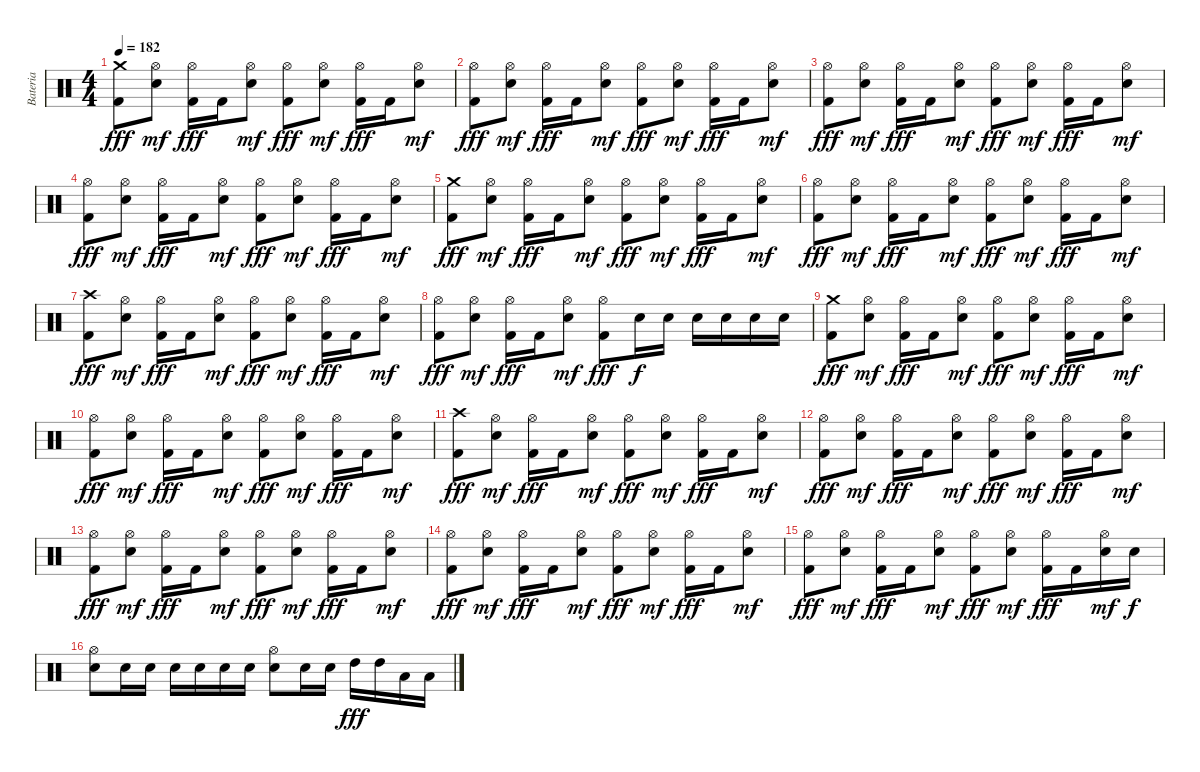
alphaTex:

\track ("Bateria" "Bateria") {instrument percussion}
\staff {score}
\articulation defaults
\ts (4 4)
\tempo 182
\clef neutral
\ks c
("Crash medium (hit)" "Kick (hit) 2").8{dy fff} ("Hi-Hat (open)" "Electric Snare (hit)").8{dy mf} ("Hi-Hat (open)" "Kick (hit) 2").16{dy fff} "Kick (hit) 2".16 ("Hi-Hat (open)" "Electric Snare (hit)").8{dy mf} ("Hi-Hat (open)" "Kick (hit) 2").8{dy fff} ("Hi-Hat (open)" "Electric Snare (hit)").8{dy mf} ("Hi-Hat (open)" "Kick (hit) 2").16{dy fff} "Kick (hit) 2".16 ("Hi-Hat (open)" "Electric Snare (hit)").8{dy mf} |
("Hi-Hat (open)" "Kick (hit) 2").8{dy fff} ("Hi-Hat (open)" "Electric Snare (hit)").8{dy mf} ("Hi-Hat (open)" "Kick (hit) 2").16{dy fff} "Kick (hit) 2".16 ("Hi-Hat (open)" "Electric Snare (hit)").8{dy mf} ("Hi-Hat (open)" "Kick (hit) 2").8{dy fff} ("Hi-Hat (open)" "Electric Snare (hit)").8{dy mf} ("Hi-Hat (open)" "Kick (hit) 2").16{dy fff} "Kick (hit) 2".16 ("Hi-Hat (open)" "Electric Snare (hit)").8{dy mf} |
("Hi-Hat (open)" "Kick (hit) 2").8{dy fff} ("Hi-Hat (open)" "Electric Snare (hit)").8{dy mf} ("Hi-Hat (open)" "Kick (hit) 2").16{dy fff} "Kick (hit) 2".16 ("Hi-Hat (open)" "Electric Snare (hit)").8{dy mf} ("Hi-Hat (open)" "Kick (hit) 2").8{dy fff} ("Hi-Hat (open)" "Electric Snare (hit)").8{dy mf} ("Hi-Hat (open)" "Kick (hit) 2").16{dy fff} "Kick (hit) 2".16 ("Hi-Hat (open)" "Electric Snare (hit)").8{dy mf} |
("Hi-Hat (open)" "Kick (hit) 2").8{dy fff} ("Hi-Hat (open)" "Electric Snare (hit)").8{dy mf} ("Hi-Hat (open)" "Kick (hit) 2").16{dy fff} "Kick (hit) 2".16 ("Hi-Hat (open)" "Electric Snare (hit)").8{dy mf} ("Hi-Hat (open)" "Kick (hit) 2").8{dy fff} ("Hi-Hat (open)" "Electric Snare (hit)").8{dy mf} ("Hi-Hat (open)" "Kick (hit) 2").16{dy fff} "Kick (hit) 2".16 ("Hi-Hat (open)" "Electric Snare (hit)").8{dy mf} |
("Crash medium (hit)" "Kick (hit) 2").8{dy fff} ("Hi-Hat (open)" "Electric Snare (hit)").8{dy mf} ("Hi-Hat (open)" "Kick (hit) 2").16{dy fff} "Kick (hit) 2".16 ("Hi-Hat (open)" "Electric Snare (hit)").8{dy mf} ("Hi-Hat (open)" "Kick (hit) 2").8{dy fff} ("Hi-Hat (open)" "Electric Snare (hit)").8{dy mf} ("Hi-Hat (open)" "Kick (hit) 2").16{dy fff} "Kick (hit) 2".16 ("Hi-Hat (open)" "Electric Snare (hit)").8{dy mf} |
("Hi-Hat (open)" "Kick (hit) 2").8{dy fff} ("Hi-Hat (open)" "Electric Snare (hit)").8{dy mf} ("Hi-Hat (open)" "Kick (hit) 2").16{dy fff} "Kick (hit) 2".16 ("Hi-Hat (open)" "Electric Snare (hit)").8{dy mf} ("Hi-Hat (open)" "Kick (hit) 2").8{dy fff} ("Hi-Hat (open)" "Electric Snare (hit)").8{dy mf} ("Hi-Hat (open)" "Kick (hit) 2").16{dy fff} "Kick (hit) 2".16 ("Hi-Hat (open)" "Electric Snare (hit)").8{dy mf} |
("Crash high (hit)" "Kick (hit) 2").8{dy fff} ("Hi-Hat (open)" "Electric Snare (hit)").8{dy mf} ("Hi-Hat (open)" "Kick (hit) 2").16{dy fff} "Kick (hit) 2".16 ("Hi-Hat (open)" "Electric Snare (hit)").8{dy mf} ("Hi-Hat (open)" "Kick (hit) 2").8{dy fff} ("Hi-Hat (open)" "Electric Snare (hit)").8{dy mf} ("Hi-Hat (open)" "Kick (hit) 2").16{dy fff} "Kick (hit) 2".16 ("Hi-Hat (open)" "Electric Snare (hit)").8{dy mf} |
("Hi-Hat (open)" "Kick (hit) 2").8{dy fff} ("Hi-Hat (open)" "Electric Snare (hit)").8{dy mf} ("Hi-Hat (open)" "Kick (hit) 2").16{dy fff} "Kick (hit) 2".16 ("Hi-Hat (open)" "Electric Snare (hit)").8{dy mf} ("Hi-Hat (open)" "Kick (hit) 2").8{dy fff} "Electric Snare (hit)".16{dy f} "Electric Snare (hit)".16 "Electric Snare (hit)".16 "Electric Snare (hit)".16 "Electric Snare (hit)".16 "Electric Snare (hit)".16 |
("Crash medium (hit)" "Kick (hit) 2").8{dy fff} ("Hi-Hat (open)" "Electric Snare (hit)").8{dy mf} ("Hi-Hat (open)" "Kick (hit) 2").16{dy fff} "Kick (hit) 2".16 ("Hi-Hat (open)" "Electric Snare (hit)").8{dy mf} ("Hi-Hat (open)" "Kick (hit) 2").8{dy fff} ("Hi-Hat (open)" "Electric Snare (hit)").8{dy mf} ("Hi-Hat (open)" "Kick (hit) 2").16{dy fff} "Kick (hit) 2".16 ("Hi-Hat (open)" "Electric Snare (hit)").8{dy mf} |
("Hi-Hat (open)" "Kick (hit) 2").8{dy fff} ("Hi-Hat (open)" "Electric Snare (hit)").8{dy mf} ("Hi-Hat (open)" "Kick (hit) 2").16{dy fff} "Kick (hit) 2".16 ("Hi-Hat (open)" "Electric Snare (hit)").8{dy mf} ("Hi-Hat (open)" "Kick (hit) 2").8{dy fff} ("Hi-Hat (open)" "Electric Snare (hit)").8{dy mf} ("Hi-Hat (open)" "Kick (hit) 2").16{dy fff} "Kick (hit) 2".16 ("Hi-Hat (open)" "Electric Snare (hit)").8{dy mf} |
("Crash high (hit)" "Kick (hit) 2").8{dy fff} ("Hi-Hat (open)" "Electric Snare (hit)").8{dy mf} ("Hi-Hat (open)" "Kick (hit) 2").16{dy fff} "Kick (hit) 2".16 ("Hi-Hat (open)" "Electric Snare (hit)").8{dy mf} ("Hi-Hat (open)" "Kick (hit) 2").8{dy fff} ("Hi-Hat (open)" "Electric Snare (hit)").8{dy mf} ("Hi-Hat (open)" "Kick (hit) 2").16{dy fff} "Kick (hit) 2".16 ("Hi-Hat (open)" "Electric Snare (hit)").8{dy mf} |
("Hi-Hat (open)" "Kick (hit) 2").8{dy fff} ("Hi-Hat (open)" "Electric Snare (hit)").8{dy mf} ("Hi-Hat (open)" "Kick (hit) 2").16{dy fff} "Kick (hit) 2".16 ("Hi-Hat (open)" "Electric Snare (hit)").8{dy mf} ("Hi-Hat (open)" "Kick (hit) 2").8{dy fff} ("Hi-Hat (open)" "Electric Snare (hit)").8{dy mf} ("Hi-Hat (open)" "Kick (hit) 2").16{dy fff} "Kick (hit) 2".16 ("Hi-Hat (open)" "Electric Snare (hit)").8{dy mf} |
("Hi-Hat (open)" "Kick (hit) 2").8{dy fff} ("Hi-Hat (open)" "Electric Snare (hit)").8{dy mf} ("Hi-Hat (open)" "Kick (hit) 2").16{dy fff} "Kick (hit) 2".16 ("Hi-Hat (open)" "Electric Snare (hit)").8{dy mf} ("Hi-Hat (open)" "Kick (hit) 2").8{dy fff} ("Hi-Hat (open)" "Electric Snare (hit)").8{dy mf} ("Hi-Hat (open)" "Kick (hit) 2").16{dy fff} "Kick (hit) 2".16 ("Hi-Hat (open)" "Electric Snare (hit)").8{dy mf} |
("Hi-Hat (open)" "Kick (hit) 2").8{dy fff} ("Hi-Hat (open)" "Electric Snare (hit)").8{dy mf} ("Hi-Hat (open)" "Kick (hit) 2").16{dy fff} "Kick (hit) 2".16 ("Hi-Hat (open)" "Electric Snare (hit)").8{dy mf} ("Hi-Hat (open)" "Kick (hit) 2").8{dy fff} ("Hi-Hat (open)" "Electric Snare (hit)").8{dy mf} ("Hi-Hat (open)" "Kick (hit) 2").16{dy fff} "Kick (hit) 2".16 ("Hi-Hat (open)" "Electric Snare (hit)").8{dy mf} |
("Hi-Hat (open)" "Kick (hit) 2").8{dy fff} ("Hi-Hat (open)" "Electric Snare (hit)").8{dy mf} ("Hi-Hat (open)" "Kick (hit) 2").16{dy fff} "Kick (hit) 2".16 ("Hi-Hat (open)" "Electric Snare (hit)").8{dy mf} ("Hi-Hat (open)" "Kick (hit) 2").8{dy fff} ("Hi-Hat (open)" "Electric Snare (hit)").8{dy mf} ("Hi-Hat (open)" "Kick (hit) 2").16{dy fff} "Kick (hit) 2".16 ("Hi-Hat (open)" "Electric Snare (hit)").16{dy mf} "Electric Snare (hit)".16{dy f} |
("Hi-Hat (open)" "Electric Snare (hit)").8 "Electric Snare (hit)".16 "Electric Snare (hit)".16 "Electric Snare (hit)".16 "Electric Snare (hit)".16 "Electric Snare (hit)".16 "Electric Snare (hit)".16 ("Hi-Hat (open)" "Electric Snare (hit)").8 "Electric Snare (hit)".16 "Electric Snare (hit)".16 "High Tom (hit)".16{dy fff} "High Tom (hit)".16 "Low Tom (hit)".16 "Low Tom (hit)".16
